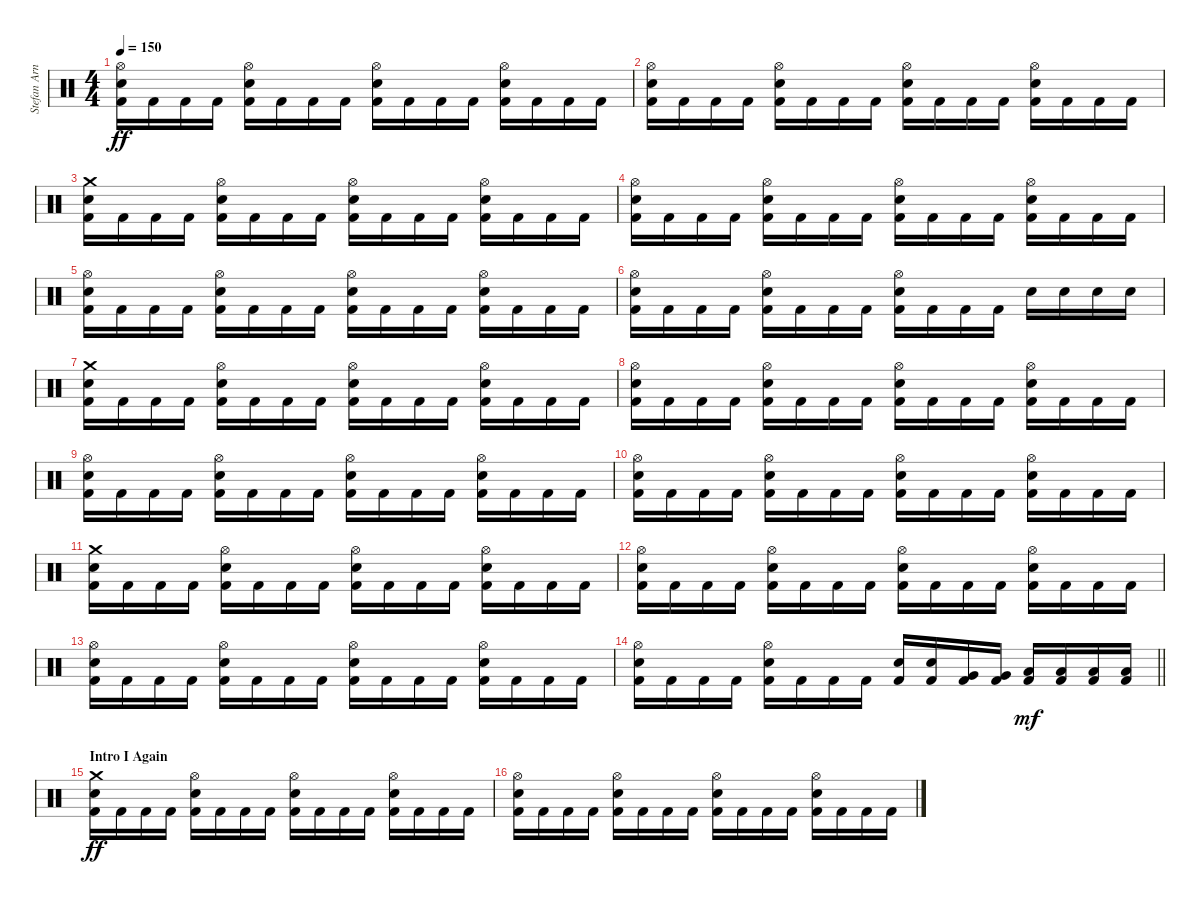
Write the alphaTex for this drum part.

\track ("Stefan Arnold" "Stefan Arn") {instrument percussion}
\staff {score}
\articulation defaults
\ts (4 4)
\tempo 150
\clef neutral
\ks c
("Hi-Hat (open)" "Electric Snare (hit)" "Kick (hit) 2").16{dy ff} "Kick (hit) 2".16 "Kick (hit) 2".16 "Kick (hit) 2".16 ("Hi-Hat (open)" "Electric Snare (hit)" "Kick (hit) 2").16 "Kick (hit) 2".16 "Kick (hit) 2".16 "Kick (hit) 2".16 ("Hi-Hat (open)" "Electric Snare (hit)" "Kick (hit) 2").16 "Kick (hit) 2".16 "Kick (hit) 2".16 "Kick (hit) 2".16 ("Hi-Hat (open)" "Electric Snare (hit)" "Kick (hit) 2").16 "Kick (hit) 2".16 "Kick (hit) 2".16 "Kick (hit) 2".16 |
("Hi-Hat (open)" "Electric Snare (hit)" "Kick (hit) 2").16 "Kick (hit) 2".16 "Kick (hit) 2".16 "Kick (hit) 2".16 ("Hi-Hat (open)" "Electric Snare (hit)" "Kick (hit) 2").16 "Kick (hit) 2".16 "Kick (hit) 2".16 "Kick (hit) 2".16 ("Hi-Hat (open)" "Electric Snare (hit)" "Kick (hit) 2").16 "Kick (hit) 2".16 "Kick (hit) 2".16 "Kick (hit) 2".16 ("Hi-Hat (open)" "Electric Snare (hit)" "Kick (hit) 2").16 "Kick (hit) 2".16 "Kick (hit) 2".16 "Kick (hit) 2".16 |
("Crash medium (hit)" "Electric Snare (hit)" "Kick (hit) 2").16 "Kick (hit) 2".16 "Kick (hit) 2".16 "Kick (hit) 2".16 ("Hi-Hat (open)" "Electric Snare (hit)" "Kick (hit) 2").16 "Kick (hit) 2".16 "Kick (hit) 2".16 "Kick (hit) 2".16 ("Hi-Hat (open)" "Electric Snare (hit)" "Kick (hit) 2").16 "Kick (hit) 2".16 "Kick (hit) 2".16 "Kick (hit) 2".16 ("Hi-Hat (open)" "Electric Snare (hit)" "Kick (hit) 2").16 "Kick (hit) 2".16 "Kick (hit) 2".16 "Kick (hit) 2".16 |
("Hi-Hat (open)" "Electric Snare (hit)" "Kick (hit) 2").16 "Kick (hit) 2".16 "Kick (hit) 2".16 "Kick (hit) 2".16 ("Hi-Hat (open)" "Electric Snare (hit)" "Kick (hit) 2").16 "Kick (hit) 2".16 "Kick (hit) 2".16 "Kick (hit) 2".16 ("Hi-Hat (open)" "Electric Snare (hit)" "Kick (hit) 2").16 "Kick (hit) 2".16 "Kick (hit) 2".16 "Kick (hit) 2".16 ("Hi-Hat (open)" "Electric Snare (hit)" "Kick (hit) 2").16 "Kick (hit) 2".16 "Kick (hit) 2".16 "Kick (hit) 2".16 |
("Hi-Hat (open)" "Electric Snare (hit)" "Kick (hit) 2").16 "Kick (hit) 2".16 "Kick (hit) 2".16 "Kick (hit) 2".16 ("Hi-Hat (open)" "Electric Snare (hit)" "Kick (hit) 2").16 "Kick (hit) 2".16 "Kick (hit) 2".16 "Kick (hit) 2".16 ("Hi-Hat (open)" "Electric Snare (hit)" "Kick (hit) 2").16 "Kick (hit) 2".16 "Kick (hit) 2".16 "Kick (hit) 2".16 ("Hi-Hat (open)" "Electric Snare (hit)" "Kick (hit) 2").16 "Kick (hit) 2".16 "Kick (hit) 2".16 "Kick (hit) 2".16 |
("Hi-Hat (open)" "Electric Snare (hit)" "Kick (hit) 2").16 "Kick (hit) 2".16 "Kick (hit) 2".16 "Kick (hit) 2".16 ("Hi-Hat (open)" "Electric Snare (hit)" "Kick (hit) 2").16 "Kick (hit) 2".16 "Kick (hit) 2".16 "Kick (hit) 2".16 ("Hi-Hat (open)" "Electric Snare (hit)" "Kick (hit) 2").16 "Kick (hit) 2".16 "Kick (hit) 2".16 "Kick (hit) 2".16 "Electric Snare (hit)".16 "Electric Snare (hit)".16 "Electric Snare (hit)".16 "Electric Snare (hit)".16 |
("Crash medium (hit)" "Electric Snare (hit)" "Kick (hit) 2").16 "Kick (hit) 2".16 "Kick (hit) 2".16 "Kick (hit) 2".16 ("Hi-Hat (open)" "Electric Snare (hit)" "Kick (hit) 2").16 "Kick (hit) 2".16 "Kick (hit) 2".16 "Kick (hit) 2".16 ("Hi-Hat (open)" "Electric Snare (hit)" "Kick (hit) 2").16 "Kick (hit) 2".16 "Kick (hit) 2".16 "Kick (hit) 2".16 ("Hi-Hat (open)" "Electric Snare (hit)" "Kick (hit) 2").16 "Kick (hit) 2".16 "Kick (hit) 2".16 "Kick (hit) 2".16 |
("Hi-Hat (open)" "Electric Snare (hit)" "Kick (hit) 2").16 "Kick (hit) 2".16 "Kick (hit) 2".16 "Kick (hit) 2".16 ("Hi-Hat (open)" "Electric Snare (hit)" "Kick (hit) 2").16 "Kick (hit) 2".16 "Kick (hit) 2".16 "Kick (hit) 2".16 ("Hi-Hat (open)" "Electric Snare (hit)" "Kick (hit) 2").16 "Kick (hit) 2".16 "Kick (hit) 2".16 "Kick (hit) 2".16 ("Hi-Hat (open)" "Electric Snare (hit)" "Kick (hit) 2").16 "Kick (hit) 2".16 "Kick (hit) 2".16 "Kick (hit) 2".16 |
("Hi-Hat (open)" "Electric Snare (hit)" "Kick (hit) 2").16 "Kick (hit) 2".16 "Kick (hit) 2".16 "Kick (hit) 2".16 ("Hi-Hat (open)" "Electric Snare (hit)" "Kick (hit) 2").16 "Kick (hit) 2".16 "Kick (hit) 2".16 "Kick (hit) 2".16 ("Hi-Hat (open)" "Electric Snare (hit)" "Kick (hit) 2").16 "Kick (hit) 2".16 "Kick (hit) 2".16 "Kick (hit) 2".16 ("Hi-Hat (open)" "Electric Snare (hit)" "Kick (hit) 2").16 "Kick (hit) 2".16 "Kick (hit) 2".16 "Kick (hit) 2".16 |
("Hi-Hat (open)" "Electric Snare (hit)" "Kick (hit) 2").16 "Kick (hit) 2".16 "Kick (hit) 2".16 "Kick (hit) 2".16 ("Hi-Hat (open)" "Electric Snare (hit)" "Kick (hit) 2").16 "Kick (hit) 2".16 "Kick (hit) 2".16 "Kick (hit) 2".16 ("Hi-Hat (open)" "Electric Snare (hit)" "Kick (hit) 2").16 "Kick (hit) 2".16 "Kick (hit) 2".16 "Kick (hit) 2".16 ("Hi-Hat (open)" "Electric Snare (hit)" "Kick (hit) 2").16 "Kick (hit) 2".16 "Kick (hit) 2".16 "Kick (hit) 2".16 |
("Crash medium (hit)" "Electric Snare (hit)" "Kick (hit) 2").16 "Kick (hit) 2".16 "Kick (hit) 2".16 "Kick (hit) 2".16 ("Hi-Hat (open)" "Electric Snare (hit)" "Kick (hit) 2").16 "Kick (hit) 2".16 "Kick (hit) 2".16 "Kick (hit) 2".16 ("Hi-Hat (open)" "Electric Snare (hit)" "Kick (hit) 2").16 "Kick (hit) 2".16 "Kick (hit) 2".16 "Kick (hit) 2".16 ("Hi-Hat (open)" "Electric Snare (hit)" "Kick (hit) 2").16 "Kick (hit) 2".16 "Kick (hit) 2".16 "Kick (hit) 2".16 |
("Hi-Hat (open)" "Electric Snare (hit)" "Kick (hit) 2").16 "Kick (hit) 2".16 "Kick (hit) 2".16 "Kick (hit) 2".16 ("Hi-Hat (open)" "Electric Snare (hit)" "Kick (hit) 2").16 "Kick (hit) 2".16 "Kick (hit) 2".16 "Kick (hit) 2".16 ("Hi-Hat (open)" "Electric Snare (hit)" "Kick (hit) 2").16 "Kick (hit) 2".16 "Kick (hit) 2".16 "Kick (hit) 2".16 ("Hi-Hat (open)" "Electric Snare (hit)" "Kick (hit) 2").16 "Kick (hit) 2".16 "Kick (hit) 2".16 "Kick (hit) 2".16 |
("Hi-Hat (open)" "Electric Snare (hit)" "Kick (hit) 2").16 "Kick (hit) 2".16 "Kick (hit) 2".16 "Kick (hit) 2".16 ("Hi-Hat (open)" "Electric Snare (hit)" "Kick (hit) 2").16 "Kick (hit) 2".16 "Kick (hit) 2".16 "Kick (hit) 2".16 ("Hi-Hat (open)" "Electric Snare (hit)" "Kick (hit) 2").16 "Kick (hit) 2".16 "Kick (hit) 2".16 "Kick (hit) 2".16 ("Hi-Hat (open)" "Electric Snare (hit)" "Kick (hit) 2").16 "Kick (hit) 2".16 "Kick (hit) 2".16 "Kick (hit) 2".16 |
\barLineRight lightlight
("Hi-Hat (open)" "Electric Snare (hit)" "Kick (hit) 2").16 "Kick (hit) 2".16 "Kick (hit) 2".16 "Kick (hit) 2".16 ("Hi-Hat (open)" "Electric Snare (hit)" "Kick (hit) 2").16 "Kick (hit) 2".16 "Kick (hit) 2".16 "Kick (hit) 2".16 ("Electric Snare (hit)" "Kick (hit) 2").16 ("Electric Snare (hit)" "Kick (hit) 2").16 ("Very Low Tom (hit)" "Kick (hit) 2").16 ("Very Low Tom (hit)" "Kick (hit) 2").16 ("Low Tom (hit)" "Kick (hit) 2").16{dy mf} ("Low Tom (hit)" "Kick (hit) 2").16 ("Low Floor Tom (hit)" "Kick (hit) 2").16 ("Low Floor Tom (hit)" "Kick (hit) 2").16 |
\section ("" "Intro I Again ")
("Crash medium (hit)" "Electric Snare (hit)" "Kick (hit) 2").16{dy ff} "Kick (hit) 2".16 "Kick (hit) 2".16 "Kick (hit) 2".16 ("Hi-Hat (open)" "Electric Snare (hit)" "Kick (hit) 2").16 "Kick (hit) 2".16 "Kick (hit) 2".16 "Kick (hit) 2".16 ("Hi-Hat (open)" "Electric Snare (hit)" "Kick (hit) 2").16 "Kick (hit) 2".16 "Kick (hit) 2".16 "Kick (hit) 2".16 ("Hi-Hat (open)" "Electric Snare (hit)" "Kick (hit) 2").16 "Kick (hit) 2".16 "Kick (hit) 2".16 "Kick (hit) 2".16 |
("Hi-Hat (open)" "Electric Snare (hit)" "Kick (hit) 2").16 "Kick (hit) 2".16 "Kick (hit) 2".16 "Kick (hit) 2".16 ("Hi-Hat (open)" "Electric Snare (hit)" "Kick (hit) 2").16 "Kick (hit) 2".16 "Kick (hit) 2".16 "Kick (hit) 2".16 ("Hi-Hat (open)" "Electric Snare (hit)" "Kick (hit) 2").16 "Kick (hit) 2".16 "Kick (hit) 2".16 "Kick (hit) 2".16 ("Hi-Hat (open)" "Electric Snare (hit)" "Kick (hit) 2").16 "Kick (hit) 2".16 "Kick (hit) 2".16 "Kick (hit) 2".16
